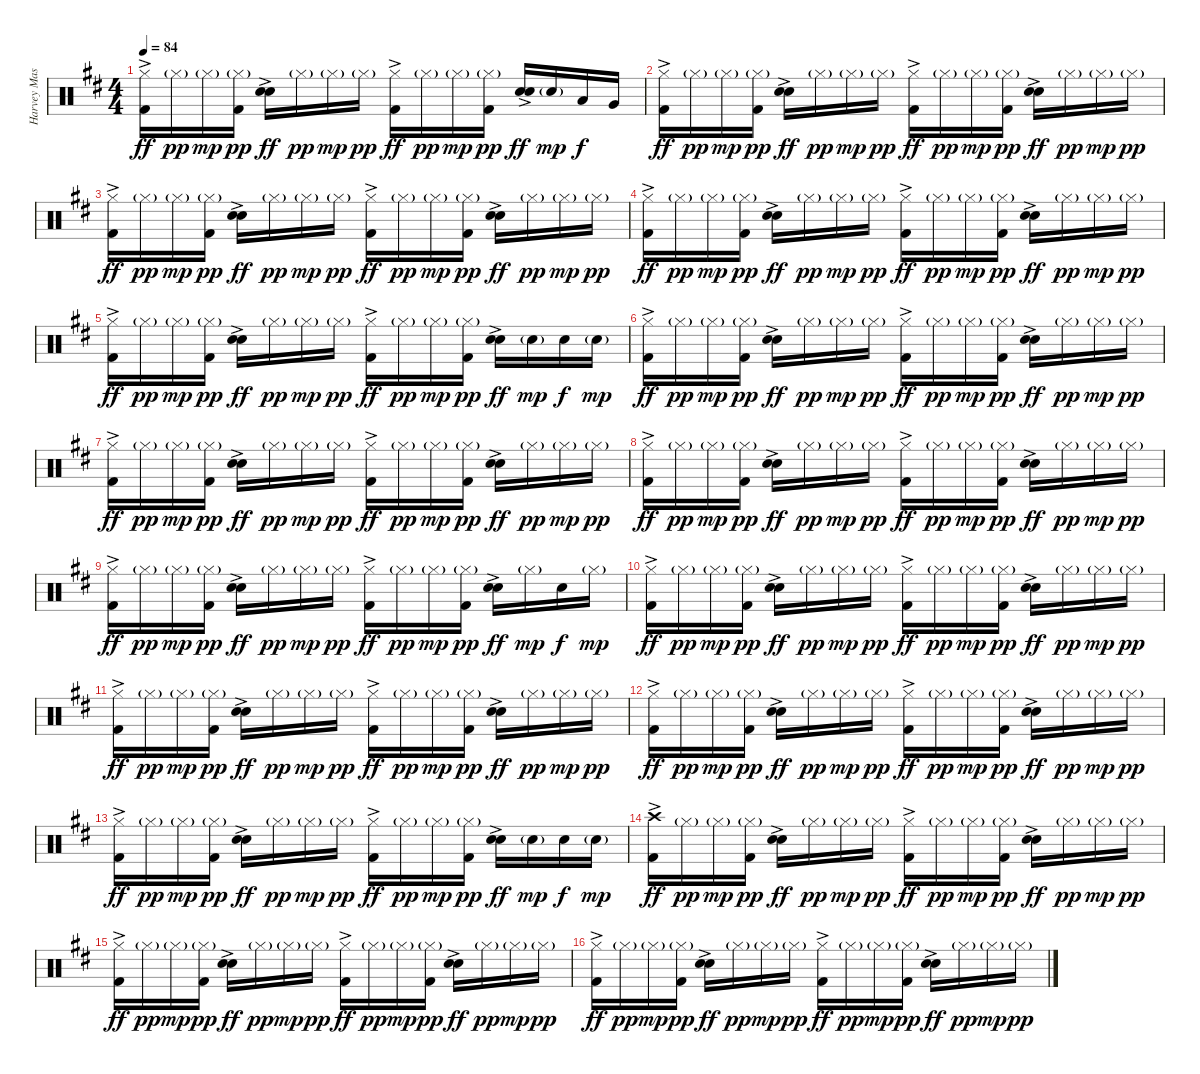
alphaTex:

\track ("Harvey Mason" "Harvey Mas") {instrument percussion}
\staff {score}
\articulation defaults
\ts (4 4)
\tempo 84
\clef neutral
\ks d
("Hi-Hat (closed)" "Kick (hit) 2"{ac}).16{dy ff} "Hi-Hat (closed)"{g}.16{dy pp} "Hi-Hat (closed)"{g}.16{dy mp} ("Hi-Hat (closed)"{g} "Kick (hit) 2").16{dy pp} ("Electric Snare (hit)"{ac} "Snare (hit) 2").16{dy ff} "Hi-Hat (closed)"{g}.16{dy pp} "Hi-Hat (closed)"{g}.16{dy mp} "Hi-Hat (closed)"{g}.16{dy pp} ("Hi-Hat (closed)" "Kick (hit) 2"{ac}).16{dy ff} "Hi-Hat (closed)"{g}.16{dy pp} "Hi-Hat (closed)"{g}.16{dy mp} ("Hi-Hat (closed)"{g} "Kick (hit) 2").16{dy pp} ("Electric Snare (hit)"{ac} "Snare (hit) 2").16{dy ff} "Snare (hit) 2"{g}.16{dy mp} "Low Tom (hit)".16{dy f} "Very Low Tom (hit)".16 |
("Hi-Hat (closed)" "Kick (hit) 2"{ac}).16{dy ff} "Hi-Hat (closed)"{g}.16{dy pp} "Hi-Hat (closed)"{g}.16{dy mp} ("Hi-Hat (closed)"{g} "Kick (hit) 2").16{dy pp} ("Electric Snare (hit)"{ac} "Snare (hit) 2").16{dy ff} "Hi-Hat (closed)"{g}.16{dy pp} "Hi-Hat (closed)"{g}.16{dy mp} "Hi-Hat (closed)"{g}.16{dy pp} ("Hi-Hat (closed)" "Kick (hit) 2"{ac}).16{dy ff} "Hi-Hat (closed)"{g}.16{dy pp} "Hi-Hat (closed)"{g}.16{dy mp} ("Hi-Hat (closed)"{g} "Kick (hit) 2").16{dy pp} ("Electric Snare (hit)"{ac} "Snare (hit) 2").16{dy ff} "Hi-Hat (closed)"{g}.16{dy pp} "Hi-Hat (closed)"{g}.16{dy mp} "Hi-Hat (closed)"{g}.16{dy pp} |
("Hi-Hat (closed)" "Kick (hit) 2"{ac}).16{dy ff} "Hi-Hat (closed)"{g}.16{dy pp} "Hi-Hat (closed)"{g}.16{dy mp} ("Hi-Hat (closed)"{g} "Kick (hit) 2").16{dy pp} ("Electric Snare (hit)"{ac} "Snare (hit) 2").16{dy ff} "Hi-Hat (closed)"{g}.16{dy pp} "Hi-Hat (closed)"{g}.16{dy mp} "Hi-Hat (closed)"{g}.16{dy pp} ("Hi-Hat (closed)" "Kick (hit) 2"{ac}).16{dy ff} "Hi-Hat (closed)"{g}.16{dy pp} "Hi-Hat (closed)"{g}.16{dy mp} ("Hi-Hat (closed)"{g} "Kick (hit) 2").16{dy pp} ("Electric Snare (hit)"{ac} "Snare (hit) 2").16{dy ff} "Hi-Hat (closed)"{g}.16{dy pp} "Hi-Hat (closed)"{g}.16{dy mp} "Hi-Hat (closed)"{g}.16{dy pp} |
("Hi-Hat (closed)" "Kick (hit) 2"{ac}).16{dy ff} "Hi-Hat (closed)"{g}.16{dy pp} "Hi-Hat (closed)"{g}.16{dy mp} ("Hi-Hat (closed)"{g} "Kick (hit) 2").16{dy pp} ("Electric Snare (hit)"{ac} "Snare (hit) 2").16{dy ff} "Hi-Hat (closed)"{g}.16{dy pp} "Hi-Hat (closed)"{g}.16{dy mp} "Hi-Hat (closed)"{g}.16{dy pp} ("Hi-Hat (closed)" "Kick (hit) 2"{ac}).16{dy ff} "Hi-Hat (closed)"{g}.16{dy pp} "Hi-Hat (closed)"{g}.16{dy mp} ("Hi-Hat (closed)"{g} "Kick (hit) 2").16{dy pp} ("Electric Snare (hit)"{ac} "Snare (hit) 2").16{dy ff} "Hi-Hat (closed)"{g}.16{dy pp} "Hi-Hat (closed)"{g}.16{dy mp} "Hi-Hat (closed)"{g}.16{dy pp} |
("Hi-Hat (closed)" "Kick (hit) 2"{ac}).16{dy ff} "Hi-Hat (closed)"{g}.16{dy pp} "Hi-Hat (closed)"{g}.16{dy mp} ("Hi-Hat (closed)"{g} "Kick (hit) 2").16{dy pp} ("Electric Snare (hit)"{ac} "Snare (hit) 2").16{dy ff} "Hi-Hat (closed)"{g}.16{dy pp} "Hi-Hat (closed)"{g}.16{dy mp} "Hi-Hat (closed)"{g}.16{dy pp} ("Hi-Hat (closed)" "Kick (hit) 2"{ac}).16{dy ff} "Hi-Hat (closed)"{g}.16{dy pp} "Hi-Hat (closed)"{g}.16{dy mp} ("Hi-Hat (closed)"{g} "Kick (hit) 2").16{dy pp} ("Electric Snare (hit)"{ac} "Snare (hit) 2").16{dy ff} "Snare (hit) 2"{g}.16{dy mp} "Snare (hit) 2".16{dy f} "Snare (hit) 2"{g}.16{dy mp} |
("Hi-Hat (closed)" "Kick (hit) 2"{ac}).16{dy ff} "Hi-Hat (closed)"{g}.16{dy pp} "Hi-Hat (closed)"{g}.16{dy mp} ("Hi-Hat (closed)"{g} "Kick (hit) 2").16{dy pp} ("Electric Snare (hit)"{ac} "Snare (hit) 2").16{dy ff} "Hi-Hat (closed)"{g}.16{dy pp} "Hi-Hat (closed)"{g}.16{dy mp} "Hi-Hat (closed)"{g}.16{dy pp} ("Hi-Hat (closed)" "Kick (hit) 2"{ac}).16{dy ff} "Hi-Hat (closed)"{g}.16{dy pp} "Hi-Hat (closed)"{g}.16{dy mp} ("Hi-Hat (closed)"{g} "Kick (hit) 2").16{dy pp} ("Electric Snare (hit)"{ac} "Snare (hit) 2").16{dy ff} "Hi-Hat (closed)"{g}.16{dy pp} "Hi-Hat (closed)"{g}.16{dy mp} "Hi-Hat (closed)"{g}.16{dy pp} |
("Hi-Hat (closed)" "Kick (hit) 2"{ac}).16{dy ff} "Hi-Hat (closed)"{g}.16{dy pp} "Hi-Hat (closed)"{g}.16{dy mp} ("Hi-Hat (closed)"{g} "Kick (hit) 2").16{dy pp} ("Electric Snare (hit)"{ac} "Snare (hit) 2").16{dy ff} "Hi-Hat (closed)"{g}.16{dy pp} "Hi-Hat (closed)"{g}.16{dy mp} "Hi-Hat (closed)"{g}.16{dy pp} ("Hi-Hat (closed)" "Kick (hit) 2"{ac}).16{dy ff} "Hi-Hat (closed)"{g}.16{dy pp} "Hi-Hat (closed)"{g}.16{dy mp} ("Hi-Hat (closed)"{g} "Kick (hit) 2").16{dy pp} ("Electric Snare (hit)"{ac} "Snare (hit) 2").16{dy ff} "Hi-Hat (closed)"{g}.16{dy pp} "Hi-Hat (closed)"{g}.16{dy mp} "Hi-Hat (closed)"{g}.16{dy pp} |
("Hi-Hat (closed)" "Kick (hit) 2"{ac}).16{dy ff} "Hi-Hat (closed)"{g}.16{dy pp} "Hi-Hat (closed)"{g}.16{dy mp} ("Hi-Hat (closed)"{g} "Kick (hit) 2").16{dy pp} ("Electric Snare (hit)"{ac} "Snare (hit) 2").16{dy ff} "Hi-Hat (closed)"{g}.16{dy pp} "Hi-Hat (closed)"{g}.16{dy mp} "Hi-Hat (closed)"{g}.16{dy pp} ("Hi-Hat (closed)" "Kick (hit) 2"{ac}).16{dy ff} "Hi-Hat (closed)"{g}.16{dy pp} "Hi-Hat (closed)"{g}.16{dy mp} ("Hi-Hat (closed)"{g} "Kick (hit) 2").16{dy pp} ("Electric Snare (hit)"{ac} "Snare (hit) 2").16{dy ff} "Hi-Hat (closed)"{g}.16{dy pp} "Hi-Hat (closed)"{g}.16{dy mp} "Hi-Hat (closed)"{g}.16{dy pp} |
("Hi-Hat (closed)" "Kick (hit) 2"{ac}).16{dy ff} "Hi-Hat (closed)"{g}.16{dy pp} "Hi-Hat (closed)"{g}.16{dy mp} ("Hi-Hat (closed)"{g} "Kick (hit) 2").16{dy pp} ("Electric Snare (hit)"{ac} "Snare (hit) 2").16{dy ff} "Hi-Hat (closed)"{g}.16{dy pp} "Hi-Hat (closed)"{g}.16{dy mp} "Hi-Hat (closed)"{g}.16{dy pp} ("Hi-Hat (closed)" "Kick (hit) 2"{ac}).16{dy ff} "Hi-Hat (closed)"{g}.16{dy pp} "Hi-Hat (closed)"{g}.16{dy mp} ("Hi-Hat (closed)"{g} "Kick (hit) 2").16{dy pp} ("Electric Snare (hit)"{ac} "Snare (hit) 2").16{dy ff} "Hi-Hat (closed)"{g}.16{dy mp} "Snare (hit) 2".16{dy f} "Hi-Hat (closed)"{g}.16{dy mp} |
("Hi-Hat (closed)" "Kick (hit) 2"{ac}).16{dy ff} "Hi-Hat (closed)"{g}.16{dy pp} "Hi-Hat (closed)"{g}.16{dy mp} ("Hi-Hat (closed)"{g} "Kick (hit) 2").16{dy pp} ("Electric Snare (hit)"{ac} "Snare (hit) 2").16{dy ff} "Hi-Hat (closed)"{g}.16{dy pp} "Hi-Hat (closed)"{g}.16{dy mp} "Hi-Hat (closed)"{g}.16{dy pp} ("Hi-Hat (closed)" "Kick (hit) 2"{ac}).16{dy ff} "Hi-Hat (closed)"{g}.16{dy pp} "Hi-Hat (closed)"{g}.16{dy mp} ("Hi-Hat (closed)"{g} "Kick (hit) 2").16{dy pp} ("Electric Snare (hit)"{ac} "Snare (hit) 2").16{dy ff} "Hi-Hat (closed)"{g}.16{dy pp} "Hi-Hat (closed)"{g}.16{dy mp} "Hi-Hat (closed)"{g}.16{dy pp} |
("Hi-Hat (closed)" "Kick (hit) 2"{ac}).16{dy ff} "Hi-Hat (closed)"{g}.16{dy pp} "Hi-Hat (closed)"{g}.16{dy mp} ("Hi-Hat (closed)"{g} "Kick (hit) 2").16{dy pp} ("Electric Snare (hit)"{ac} "Snare (hit) 2").16{dy ff} "Hi-Hat (closed)"{g}.16{dy pp} "Hi-Hat (closed)"{g}.16{dy mp} "Hi-Hat (closed)"{g}.16{dy pp} ("Hi-Hat (closed)" "Kick (hit) 2"{ac}).16{dy ff} "Hi-Hat (closed)"{g}.16{dy pp} "Hi-Hat (closed)"{g}.16{dy mp} ("Hi-Hat (closed)"{g} "Kick (hit) 2").16{dy pp} ("Electric Snare (hit)"{ac} "Snare (hit) 2").16{dy ff} "Hi-Hat (closed)"{g}.16{dy pp} "Hi-Hat (closed)"{g}.16{dy mp} "Hi-Hat (closed)"{g}.16{dy pp} |
("Hi-Hat (closed)" "Kick (hit) 2"{ac}).16{dy ff} "Hi-Hat (closed)"{g}.16{dy pp} "Hi-Hat (closed)"{g}.16{dy mp} ("Hi-Hat (closed)"{g} "Kick (hit) 2").16{dy pp} ("Electric Snare (hit)"{ac} "Snare (hit) 2").16{dy ff} "Hi-Hat (closed)"{g}.16{dy pp} "Hi-Hat (closed)"{g}.16{dy mp} "Hi-Hat (closed)"{g}.16{dy pp} ("Hi-Hat (closed)" "Kick (hit) 2"{ac}).16{dy ff} "Hi-Hat (closed)"{g}.16{dy pp} "Hi-Hat (closed)"{g}.16{dy mp} ("Hi-Hat (closed)"{g} "Kick (hit) 2").16{dy pp} ("Electric Snare (hit)"{ac} "Snare (hit) 2").16{dy ff} "Hi-Hat (closed)"{g}.16{dy pp} "Hi-Hat (closed)"{g}.16{dy mp} "Hi-Hat (closed)"{g}.16{dy pp} |
("Hi-Hat (closed)" "Kick (hit) 2"{ac}).16{dy ff} "Hi-Hat (closed)"{g}.16{dy pp} "Hi-Hat (closed)"{g}.16{dy mp} ("Hi-Hat (closed)"{g} "Kick (hit) 2").16{dy pp} ("Electric Snare (hit)"{ac} "Snare (hit) 2").16{dy ff} "Hi-Hat (closed)"{g}.16{dy pp} "Hi-Hat (closed)"{g}.16{dy mp} "Hi-Hat (closed)"{g}.16{dy pp} ("Hi-Hat (closed)" "Kick (hit) 2"{ac}).16{dy ff} "Hi-Hat (closed)"{g}.16{dy pp} "Hi-Hat (closed)"{g}.16{dy mp} ("Hi-Hat (closed)"{g} "Kick (hit) 2").16{dy pp} ("Electric Snare (hit)"{ac} "Snare (hit) 2").16{dy ff} "Snare (hit) 2"{g}.16{dy mp} "Snare (hit) 2".16{dy f} "Snare (hit) 2"{g}.16{dy mp} |
("Crash high (hit)" "Kick (hit) 2"{ac}).16{dy ff} "Hi-Hat (closed)"{g}.16{dy pp} "Hi-Hat (closed)"{g}.16{dy mp} ("Hi-Hat (closed)"{g} "Kick (hit) 2").16{dy pp} ("Electric Snare (hit)"{ac} "Snare (hit) 2").16{dy ff} "Hi-Hat (closed)"{g}.16{dy pp} "Hi-Hat (closed)"{g}.16{dy mp} "Hi-Hat (closed)"{g}.16{dy pp} ("Hi-Hat (closed)" "Kick (hit) 2"{ac}).16{dy ff} "Hi-Hat (closed)"{g}.16{dy pp} "Hi-Hat (closed)"{g}.16{dy mp} ("Hi-Hat (closed)"{g} "Kick (hit) 2").16{dy pp} ("Electric Snare (hit)"{ac} "Snare (hit) 2").16{dy ff} "Hi-Hat (closed)"{g}.16{dy pp} "Hi-Hat (closed)"{g}.16{dy mp} "Hi-Hat (closed)"{g}.16{dy pp} |
("Hi-Hat (closed)" "Kick (hit) 2"{ac}).16{dy ff} "Hi-Hat (closed)"{g}.16{dy pp} "Hi-Hat (closed)"{g}.16{dy mp} ("Hi-Hat (closed)"{g} "Kick (hit) 2").16{dy pp} ("Electric Snare (hit)"{ac} "Snare (hit) 2").16{dy ff} "Hi-Hat (closed)"{g}.16{dy pp} "Hi-Hat (closed)"{g}.16{dy mp} "Hi-Hat (closed)"{g}.16{dy pp} ("Hi-Hat (closed)" "Kick (hit) 2"{ac}).16{dy ff} "Hi-Hat (closed)"{g}.16{dy pp} "Hi-Hat (closed)"{g}.16{dy mp} ("Hi-Hat (closed)"{g} "Kick (hit) 2").16{dy pp} ("Electric Snare (hit)"{ac} "Snare (hit) 2").16{dy ff} "Hi-Hat (closed)"{g}.16{dy pp} "Hi-Hat (closed)"{g}.16{dy mp} "Hi-Hat (closed)"{g}.16{dy pp} |
("Hi-Hat (closed)" "Kick (hit) 2"{ac}).16{dy ff} "Hi-Hat (closed)"{g}.16{dy pp} "Hi-Hat (closed)"{g}.16{dy mp} ("Hi-Hat (closed)"{g} "Kick (hit) 2").16{dy pp} ("Electric Snare (hit)"{ac} "Snare (hit) 2").16{dy ff} "Hi-Hat (closed)"{g}.16{dy pp} "Hi-Hat (closed)"{g}.16{dy mp} "Hi-Hat (closed)"{g}.16{dy pp} ("Hi-Hat (closed)" "Kick (hit) 2"{ac}).16{dy ff} "Hi-Hat (closed)"{g}.16{dy pp} "Hi-Hat (closed)"{g}.16{dy mp} ("Hi-Hat (closed)"{g} "Kick (hit) 2").16{dy pp} ("Electric Snare (hit)"{ac} "Snare (hit) 2").16{dy ff} "Hi-Hat (closed)"{g}.16{dy pp} "Hi-Hat (closed)"{g}.16{dy mp} "Hi-Hat (closed)"{g}.16{dy pp}
